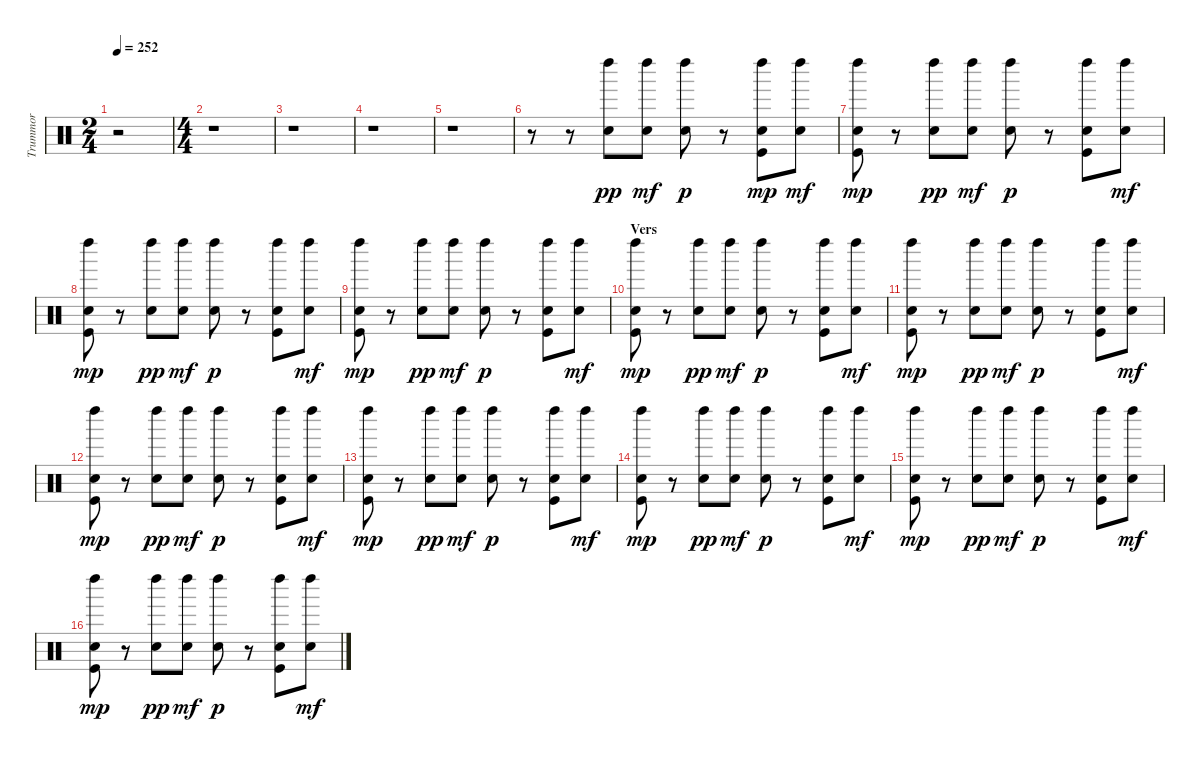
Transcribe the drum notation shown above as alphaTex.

\track ("Trummor" "Trummor") {instrument percussion}
\staff {score}
\articulation defaults
\ts (2 4)
\tempo 252
\clef neutral
\ks c
r.2{dy pp} |
\ts (4 4)
r.1 |
r.1 |
r.1 |
r.1 |
r.8 r.8 ("Left Maraca (hit)" "Snare (hit) 2").8 ("Left Maraca (hit)" "Snare (hit) 2").8{dy mf} ("Left Maraca (hit)" "Snare (hit) 2").8{dy p} r.8 ("Left Maraca (hit)" "Snare (hit) 2" "Kick (hit)").8{dy mp} ("Left Maraca (hit)" "Snare (hit) 2").8{dy mf} |
("Left Maraca (hit)" "Snare (hit) 2" "Kick (hit)").8{dy mp} r.8 ("Left Maraca (hit)" "Snare (hit) 2").8{dy pp} ("Left Maraca (hit)" "Snare (hit) 2").8{dy mf} ("Left Maraca (hit)" "Snare (hit) 2").8{dy p} r.8 ("Left Maraca (hit)" "Snare (hit) 2" "Kick (hit)").8 ("Left Maraca (hit)" "Snare (hit) 2").8{dy mf} |
("Left Maraca (hit)" "Snare (hit) 2" "Kick (hit)").8{dy mp} r.8 ("Left Maraca (hit)" "Snare (hit) 2").8{dy pp} ("Left Maraca (hit)" "Snare (hit) 2").8{dy mf} ("Left Maraca (hit)" "Snare (hit) 2").8{dy p} r.8 ("Left Maraca (hit)" "Snare (hit) 2" "Kick (hit)").8 ("Left Maraca (hit)" "Snare (hit) 2").8{dy mf} |
("Left Maraca (hit)" "Snare (hit) 2" "Kick (hit)").8{dy mp} r.8 ("Left Maraca (hit)" "Snare (hit) 2").8{dy pp} ("Left Maraca (hit)" "Snare (hit) 2").8{dy mf} ("Left Maraca (hit)" "Snare (hit) 2").8{dy p} r.8 ("Left Maraca (hit)" "Snare (hit) 2" "Kick (hit)").8 ("Left Maraca (hit)" "Snare (hit) 2").8{dy mf} |
\section ("" "Vers")
("Left Maraca (hit)" "Snare (hit) 2" "Kick (hit)").8{dy mp} r.8 ("Left Maraca (hit)" "Snare (hit) 2").8{dy pp} ("Left Maraca (hit)" "Snare (hit) 2").8{dy mf} ("Left Maraca (hit)" "Snare (hit) 2").8{dy p} r.8 ("Left Maraca (hit)" "Snare (hit) 2" "Kick (hit)").8 ("Left Maraca (hit)" "Snare (hit) 2").8{dy mf} |
("Left Maraca (hit)" "Snare (hit) 2" "Kick (hit)").8{dy mp} r.8 ("Left Maraca (hit)" "Snare (hit) 2").8{dy pp} ("Left Maraca (hit)" "Snare (hit) 2").8{dy mf} ("Left Maraca (hit)" "Snare (hit) 2").8{dy p} r.8 ("Left Maraca (hit)" "Snare (hit) 2" "Kick (hit)").8 ("Left Maraca (hit)" "Snare (hit) 2").8{dy mf} |
("Left Maraca (hit)" "Snare (hit) 2" "Kick (hit)").8{dy mp} r.8 ("Left Maraca (hit)" "Snare (hit) 2").8{dy pp} ("Left Maraca (hit)" "Snare (hit) 2").8{dy mf} ("Left Maraca (hit)" "Snare (hit) 2").8{dy p} r.8 ("Left Maraca (hit)" "Snare (hit) 2" "Kick (hit)").8 ("Left Maraca (hit)" "Snare (hit) 2").8{dy mf} |
("Left Maraca (hit)" "Snare (hit) 2" "Kick (hit)").8{dy mp} r.8 ("Left Maraca (hit)" "Snare (hit) 2").8{dy pp} ("Left Maraca (hit)" "Snare (hit) 2").8{dy mf} ("Left Maraca (hit)" "Snare (hit) 2").8{dy p} r.8 ("Left Maraca (hit)" "Snare (hit) 2" "Kick (hit)").8 ("Left Maraca (hit)" "Snare (hit) 2").8{dy mf} |
("Left Maraca (hit)" "Snare (hit) 2" "Kick (hit)").8{dy mp} r.8 ("Left Maraca (hit)" "Snare (hit) 2").8{dy pp} ("Left Maraca (hit)" "Snare (hit) 2").8{dy mf} ("Left Maraca (hit)" "Snare (hit) 2").8{dy p} r.8 ("Left Maraca (hit)" "Snare (hit) 2" "Kick (hit)").8 ("Left Maraca (hit)" "Snare (hit) 2").8{dy mf} |
("Left Maraca (hit)" "Snare (hit) 2" "Kick (hit)").8{dy mp} r.8 ("Left Maraca (hit)" "Snare (hit) 2").8{dy pp} ("Left Maraca (hit)" "Snare (hit) 2").8{dy mf} ("Left Maraca (hit)" "Snare (hit) 2").8{dy p} r.8 ("Left Maraca (hit)" "Snare (hit) 2" "Kick (hit)").8 ("Left Maraca (hit)" "Snare (hit) 2").8{dy mf} |
("Left Maraca (hit)" "Snare (hit) 2" "Kick (hit)").8{dy mp} r.8 ("Left Maraca (hit)" "Snare (hit) 2").8{dy pp} ("Left Maraca (hit)" "Snare (hit) 2").8{dy mf} ("Left Maraca (hit)" "Snare (hit) 2").8{dy p} r.8 ("Left Maraca (hit)" "Snare (hit) 2" "Kick (hit)").8 ("Left Maraca (hit)" "Snare (hit) 2").8{dy mf}
